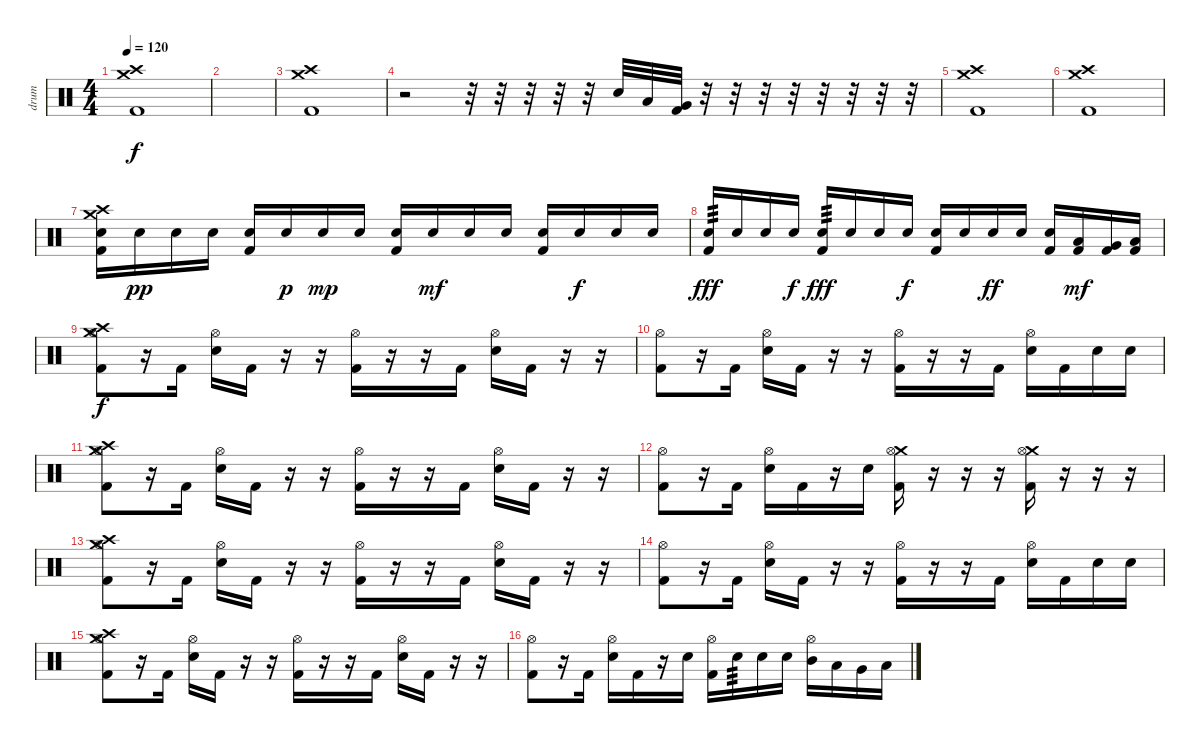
\track ("drum" "drum") {instrument percussion}
\staff {score}
\articulation defaults
\ts (4 4)
\tempo 120
\clef neutral
\ks c
("Crash high (hit)" "Crash medium (hit)" "Kick (hit) 2").1{dy f} |
|
("Crash high (hit)" "Crash medium (hit)" "Kick (hit) 2").1 |
r.2 r.32 r.32 r.32 r.32 r.32 "Electric Snare (hit)".32 "Low Tom (hit)".32 ("Very Low Tom (hit)" "Kick (hit) 2").32 r.32 r.32 r.32 r.32 r.32 r.32 r.32 r.32 |
("Crash high (hit)" "Crash medium (hit)" "Kick (hit) 2").1 |
("Crash high (hit)" "Crash medium (hit)" "Kick (hit) 2").1 |
("Crash high (hit)" "Crash medium (hit)" "Electric Snare (hit)" "Kick (hit) 2").16 "Electric Snare (hit)".16{dy pp} "Electric Snare (hit)".16 "Electric Snare (hit)".16 ("Electric Snare (hit)" "Kick (hit) 2").16 "Electric Snare (hit)".16{dy p} "Electric Snare (hit)".16{dy mp} "Electric Snare (hit)".16 ("Electric Snare (hit)" "Kick (hit) 2").16 "Electric Snare (hit)".16{dy mf} "Electric Snare (hit)".16 "Electric Snare (hit)".16 ("Electric Snare (hit)" "Kick (hit) 2").16 "Electric Snare (hit)".16{dy f} "Electric Snare (hit)".16 "Electric Snare (hit)".16 |
("Electric Snare (hit)" "Kick (hit) 2").16{tp 3 dy fff} "Electric Snare (hit)".16 "Electric Snare (hit)".16 "Electric Snare (hit)".16{dy f} ("Electric Snare (hit)" "Kick (hit) 2").16{tp 3 dy fff} "Electric Snare (hit)".16 "Electric Snare (hit)".16 "Electric Snare (hit)".16{dy f} ("Electric Snare (hit)" "Kick (hit) 2").16 "Electric Snare (hit)".16 "Electric Snare (hit)".16{dy ff} "Electric Snare (hit)".16 ("Electric Snare (hit)" "Kick (hit) 2").16 ("Low Tom (hit)" "Kick (hit) 2").16{dy mf} ("Very Low Tom (hit)" "Kick (hit) 2").16 ("Low Floor Tom (hit)" "Kick (hit) 2").16 |
("Crash medium (hit)" "Hi-Hat (open)" "Crash high (hit)" "Kick (hit) 2").8{dy f} r.16 "Kick (hit) 2".16 ("Hi-Hat (open)" "Electric Snare (hit)").16 "Kick (hit) 2".16 r.16 r.16 ("Hi-Hat (open)" "Kick (hit) 2").16 r.16 r.16 "Kick (hit) 2".16 ("Hi-Hat (open)" "Electric Snare (hit)").16 "Kick (hit) 2".16 r.16 r.16 |
("Hi-Hat (open)" "Kick (hit) 2").8 r.16 "Kick (hit) 2".16 ("Hi-Hat (open)" "Electric Snare (hit)").16 "Kick (hit) 2".16 r.16 r.16 ("Hi-Hat (open)" "Kick (hit) 2").16 r.16 r.16 "Kick (hit) 2".16 ("Hi-Hat (open)" "Electric Snare (hit)").16 "Kick (hit) 2".16 "Electric Snare (hit)".16 "Electric Snare (hit)".16 |
("Crash medium (hit)" "Hi-Hat (open)" "Crash high (hit)" "Kick (hit) 2").8 r.16 "Kick (hit) 2".16 ("Hi-Hat (open)" "Electric Snare (hit)").16 "Kick (hit) 2".16 r.16 r.16 ("Hi-Hat (open)" "Kick (hit) 2").16 r.16 r.16 "Kick (hit) 2".16 ("Hi-Hat (open)" "Electric Snare (hit)").16 "Kick (hit) 2".16 r.16 r.16 |
("Hi-Hat (open)" "Kick (hit) 2").8 r.16 "Kick (hit) 2".16 ("Hi-Hat (open)" "Electric Snare (hit)").16 "Kick (hit) 2".16 r.16 "Electric Snare (hit)".16 ("Crash medium (hit)" "Hi-Hat (open)" "Kick (hit) 2").16 r.16 r.16 r.16 ("Crash medium (hit)" "Hi-Hat (open)" "Kick (hit) 2").16 r.16 r.16 r.16 |
("Crash medium (hit)" "Hi-Hat (open)" "Crash high (hit)" "Kick (hit) 2").8 r.16 "Kick (hit) 2".16 ("Hi-Hat (open)" "Electric Snare (hit)").16 "Kick (hit) 2".16 r.16 r.16 ("Hi-Hat (open)" "Kick (hit) 2").16 r.16 r.16 "Kick (hit) 2".16 ("Hi-Hat (open)" "Electric Snare (hit)").16 "Kick (hit) 2".16 r.16 r.16 |
("Hi-Hat (open)" "Kick (hit) 2").8 r.16 "Kick (hit) 2".16 ("Hi-Hat (open)" "Electric Snare (hit)").16 "Kick (hit) 2".16 r.16 r.16 ("Hi-Hat (open)" "Kick (hit) 2").16 r.16 r.16 "Kick (hit) 2".16 ("Hi-Hat (open)" "Electric Snare (hit)").16 "Kick (hit) 2".16 "Electric Snare (hit)".16 "Electric Snare (hit)".16 |
("Crash medium (hit)" "Hi-Hat (open)" "Crash high (hit)" "Kick (hit) 2").8 r.16 "Kick (hit) 2".16 ("Hi-Hat (open)" "Electric Snare (hit)").16 "Kick (hit) 2".16 r.16 r.16 ("Hi-Hat (open)" "Kick (hit) 2").16 r.16 r.16 "Kick (hit) 2".16 ("Hi-Hat (open)" "Electric Snare (hit)").16 "Kick (hit) 2".16 r.16 r.16 |
("Hi-Hat (open)" "Kick (hit) 2").8 r.16 "Kick (hit) 2".16 ("Hi-Hat (open)" "Electric Snare (hit)").16 "Kick (hit) 2".16 r.16 "Electric Snare (hit)".16 ("Hi-Hat (open)" "Kick (hit) 2").16 "Electric Snare (hit)".16{tp 3} "Electric Snare (hit)".16 "Electric Snare (hit)".16 ("Hi-Hat (open)" "Mid Tom (hit)").16 "Low Tom (hit)".16 "Very Low Tom (hit)".16 "Low Floor Tom (hit)".16
